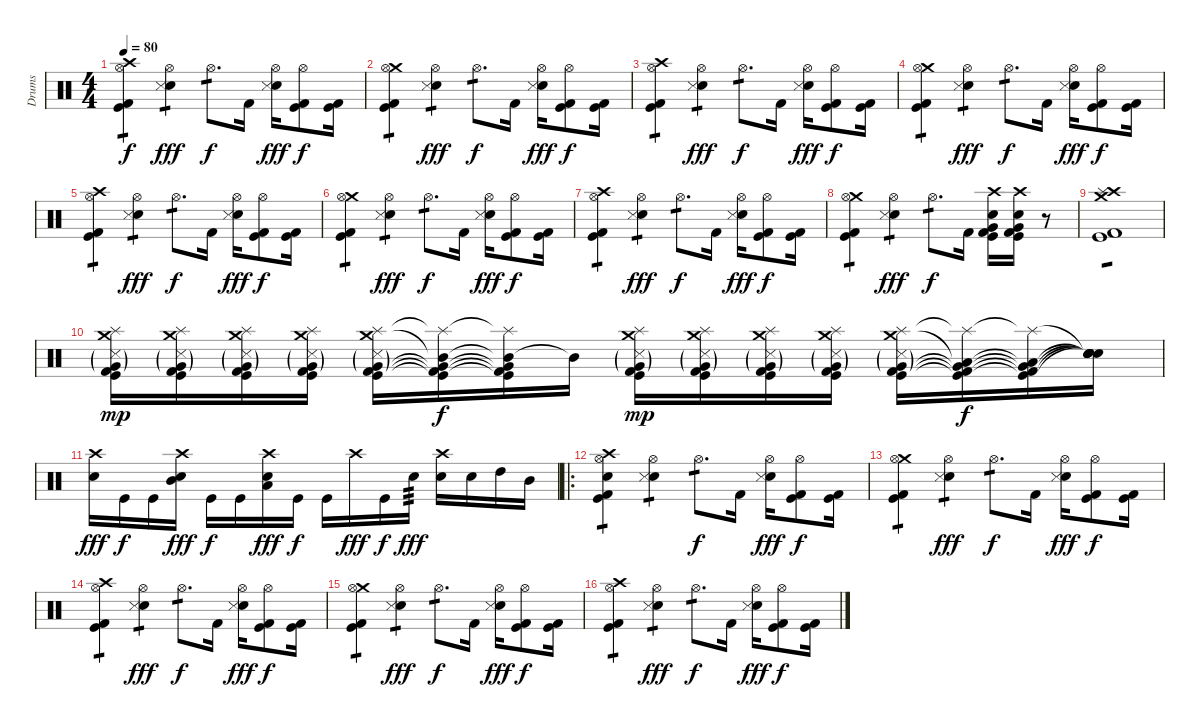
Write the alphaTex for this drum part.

\track ("Drums" "Drums") {instrument percussion}
\staff {score}
\articulation defaults
\ts (4 4)
\tempo 80
\clef neutral
\ks c
("Crash high (hit)" "Hi-Hat (open)" "Kick (hit)" "Kick (hit) 2").4{tp 1 dy f} ("Hi-Hat (open)" "Snare (hit) 2" "Snare (side stick) 3").4{tp 1 dy fff} "Hi-Hat (open)".8{d tp 1 dy f} "Kick (hit) 2".16 ("Hi-Hat (open)" "Snare (hit) 2" "Snare (side stick) 3").16{dy fff} ("Hi-Hat (open)" "Kick (hit)" "Kick (hit) 2").8{dy f} ("Kick (hit)" "Kick (hit) 2").16 |
("Crash medium (hit)" "Hi-Hat (open)" "Kick (hit)" "Kick (hit) 2").4{tp 1} ("Hi-Hat (open)" "Snare (hit) 2" "Snare (side stick) 3").4{tp 1 dy fff} "Hi-Hat (open)".8{d tp 1 dy f} "Kick (hit) 2".16 ("Hi-Hat (open)" "Snare (hit) 2" "Snare (side stick) 3").16{dy fff} ("Hi-Hat (open)" "Kick (hit)" "Kick (hit) 2").8{dy f} ("Kick (hit)" "Kick (hit) 2").16 |
("Crash high (hit)" "Hi-Hat (open)" "Kick (hit)" "Kick (hit) 2").4{tp 1} ("Hi-Hat (open)" "Snare (hit) 2" "Snare (side stick) 3").4{tp 1 dy fff} "Hi-Hat (open)".8{d tp 1 dy f} "Kick (hit) 2".16 ("Hi-Hat (open)" "Snare (hit) 2" "Snare (side stick) 3").16{dy fff} ("Hi-Hat (open)" "Kick (hit)" "Kick (hit) 2").8{dy f} ("Kick (hit)" "Kick (hit) 2").16 |
("Crash medium (hit)" "Hi-Hat (open)" "Kick (hit)" "Kick (hit) 2").4{tp 1} ("Hi-Hat (open)" "Snare (hit) 2" "Snare (side stick) 3").4{tp 1 dy fff} "Hi-Hat (open)".8{d tp 1 dy f} "Kick (hit) 2".16 ("Hi-Hat (open)" "Snare (hit) 2" "Snare (side stick) 3").16{dy fff} ("Hi-Hat (open)" "Kick (hit)" "Kick (hit) 2").8{dy f} ("Kick (hit)" "Kick (hit) 2").16 |
("Crash high (hit)" "Hi-Hat (open)" "Kick (hit)" "Kick (hit) 2").4{tp 1} ("Hi-Hat (open)" "Snare (hit) 2" "Snare (side stick) 3").4{tp 1 dy fff} "Hi-Hat (open)".8{d tp 1 dy f} "Kick (hit) 2".16 ("Hi-Hat (open)" "Snare (hit) 2" "Snare (side stick) 3").16{dy fff} ("Hi-Hat (open)" "Kick (hit)" "Kick (hit) 2").8{dy f} ("Kick (hit)" "Kick (hit) 2").16 |
("Crash medium (hit)" "Hi-Hat (open)" "Kick (hit)" "Kick (hit) 2").4{tp 1} ("Hi-Hat (open)" "Snare (hit) 2" "Snare (side stick) 3").4{tp 1 dy fff} "Hi-Hat (open)".8{d tp 1 dy f} "Kick (hit) 2".16 ("Hi-Hat (open)" "Snare (hit) 2" "Snare (side stick) 3").16{dy fff} ("Hi-Hat (open)" "Kick (hit)" "Kick (hit) 2").8{dy f} ("Kick (hit)" "Kick (hit) 2").16 |
("Crash high (hit)" "Hi-Hat (open)" "Kick (hit)" "Kick (hit) 2").4{tp 1} ("Hi-Hat (open)" "Snare (hit) 2" "Snare (side stick) 3").4{tp 1 dy fff} "Hi-Hat (open)".8{d tp 1 dy f} "Kick (hit) 2".16 ("Hi-Hat (open)" "Snare (hit) 2" "Snare (side stick) 3").16{dy fff} ("Hi-Hat (open)" "Kick (hit)" "Kick (hit) 2").8{dy f} ("Kick (hit)" "Kick (hit) 2").16 |
("Crash medium (hit)" "Hi-Hat (open)" "Kick (hit)" "Kick (hit) 2").4{tp 1} ("Hi-Hat (open)" "Snare (hit) 2" "Snare (side stick) 3").4{tp 1 dy fff} "Hi-Hat (open)".8{d tp 1 dy f} "Kick (hit) 2".16 ("Crash high (hit)" "Very Low Tom (hit)" "Snare (hit) 2" "Kick (hit)" "Kick (hit) 2").16 ("Crash high (hit)" "Very Low Tom (hit)" "Snare (hit) 2" "Kick (hit)" "Kick (hit) 2").16 r.8 |
("Crash medium (hit)" "Crash high (hit)" "Splash (hit)" "Kick (hit)" "Kick (hit) 2").1{tp 1} |
("Crash medium (hit)" "Splash (hit)" "Very Low Tom (hit)"{g} "Kick (hit)" "Kick (hit) 2" "Snare (side stick) 3"{g}).16{dy mp} ("Crash medium (hit)" "Splash (hit)" "Very Low Tom (hit)"{g} "Kick (hit)" "Kick (hit) 2" "Snare (side stick) 3"{g}).16 ("Crash medium (hit)" "Splash (hit)" "Very Low Tom (hit)"{g} "Kick (hit)" "Kick (hit) 2" "Snare (side stick) 3"{g}).16 ("Crash medium (hit)" "Splash (hit)" "Very Low Tom (hit)"{g} "Kick (hit)" "Kick (hit) 2" "Snare (side stick) 3"{g}).16 ("Crash medium (hit)" "Splash (hit)" "Very Low Tom (hit)"{g} "Kick (hit)" "Kick (hit) 2" "Snare (side stick) 3"{g}).16 ("Mid Tom (hit)"{t} "Splash (hit)"{t} "Very Low Tom (hit)"{t} "Kick (hit)"{t} "Kick (hit) 2"{t}).16{dy f} ("Mid Tom (hit)"{t} "Splash (hit)"{t} "Very Low Tom (hit)"{t} "Kick (hit)"{t} "Kick (hit) 2"{t}).16 "Mid Tom (hit)"{t}.16 ("Crash medium (hit)" "Splash (hit)" "Very Low Tom (hit)"{g} "Kick (hit)" "Kick (hit) 2" "Snare (side stick) 3"{g}).16{dy mp} ("Crash medium (hit)" "Splash (hit)" "Very Low Tom (hit)"{g} "Kick (hit)" "Kick (hit) 2" "Snare (side stick) 3"{g}).16 ("Crash medium (hit)" "Splash (hit)" "Very Low Tom (hit)"{g} "Kick (hit)" "Kick (hit) 2" "Snare (side stick) 3"{g}).16 ("Crash medium (hit)" "Splash (hit)" "Very Low Tom (hit)"{g} "Kick (hit)" "Kick (hit) 2" "Snare (side stick) 3"{g}).16 ("Crash medium (hit)" "Splash (hit)" "Very Low Tom (hit)"{g} "Kick (hit)" "Kick (hit) 2" "Snare (side stick) 3"{g}).16 ("Low Tom (hit)"{t} "Splash (hit)"{t} "Very Low Tom (hit)"{t} "Kick (hit)"{t} "Kick (hit) 2"{t}).16{dy f} ("Low Tom (hit)"{t} "Splash (hit)"{t} "Very Low Tom (hit)"{t} "Kick (hit)"{t} "Kick (hit) 2"{t}).16 ("Snare (hit)"{t} "Snare (hit)"{t} "Snare (hit)"{t} "Snare (hit)"{t} "Snare (hit)"{t}).16 |
("Crash high (hit)" "Snare (hit) 2").16{dy fff} "Kick (hit)".16{dy f} "Kick (hit)".16 ("Crash high (hit)" "Mid Tom (hit)" "Snare (hit) 2").16{dy fff} "Kick (hit)".16{dy f} "Kick (hit)".16 ("Crash high (hit)" "Low Tom (hit)" "Snare (hit) 2").16{dy fff} "Kick (hit)".16{dy f} "Kick (hit)".16 "Crash high (hit)".16{dy fff} "Kick (hit)".16{dy f} "Snare (hit) 2".16{tp 3 dy fff} ("Crash high (hit)" "Snare (hit) 2").16 "Snare (hit) 2".16 "High Tom (hit)".16 "Mid Tom (hit)".16 |
\ro
("Crash high (hit)" "Hi-Hat (open)" "Snare (hit)" "Kick (hit)" "Kick (hit) 2").4{tp 1} ("Hi-Hat (open)" "Snare (hit) 2" "Snare (side stick) 3").4{tp 1} "Hi-Hat (open)".8{d tp 1 dy f} "Kick (hit) 2".16 ("Hi-Hat (open)" "Snare (hit) 2" "Snare (side stick) 3").16{dy fff} ("Hi-Hat (open)" "Kick (hit)" "Kick (hit) 2").8{dy f} ("Kick (hit)" "Kick (hit) 2").16 |
("Crash medium (hit)" "Hi-Hat (open)" "Kick (hit)" "Kick (hit) 2").4{tp 1} ("Hi-Hat (open)" "Snare (hit) 2" "Snare (side stick) 3").4{tp 1 dy fff} "Hi-Hat (open)".8{d tp 1 dy f} "Kick (hit) 2".16 ("Hi-Hat (open)" "Snare (hit) 2" "Snare (side stick) 3").16{dy fff} ("Hi-Hat (open)" "Kick (hit)" "Kick (hit) 2").8{dy f} ("Kick (hit)" "Kick (hit) 2").16 |
("Crash high (hit)" "Hi-Hat (open)" "Kick (hit)" "Kick (hit) 2").4{tp 1} ("Hi-Hat (open)" "Snare (hit) 2" "Snare (side stick) 3").4{tp 1 dy fff} "Hi-Hat (open)".8{d tp 1 dy f} "Kick (hit) 2".16 ("Hi-Hat (open)" "Snare (hit) 2" "Snare (side stick) 3").16{dy fff} ("Hi-Hat (open)" "Kick (hit)" "Kick (hit) 2").8{dy f} ("Kick (hit)" "Kick (hit) 2").16 |
("Crash medium (hit)" "Hi-Hat (open)" "Kick (hit)" "Kick (hit) 2").4{tp 1} ("Hi-Hat (open)" "Snare (hit) 2" "Snare (side stick) 3").4{tp 1 dy fff} "Hi-Hat (open)".8{d tp 1 dy f} "Kick (hit) 2".16 ("Hi-Hat (open)" "Snare (hit) 2" "Snare (side stick) 3").16{dy fff} ("Hi-Hat (open)" "Kick (hit)" "Kick (hit) 2").8{dy f} ("Kick (hit)" "Kick (hit) 2").16 |
("Crash high (hit)" "Hi-Hat (open)" "Kick (hit)" "Kick (hit) 2").4{tp 1} ("Hi-Hat (open)" "Snare (hit) 2" "Snare (side stick) 3").4{tp 1 dy fff} "Hi-Hat (open)".8{d tp 1 dy f} "Kick (hit) 2".16 ("Hi-Hat (open)" "Snare (hit) 2" "Snare (side stick) 3").16{dy fff} ("Hi-Hat (open)" "Kick (hit)" "Kick (hit) 2").8{dy f} ("Kick (hit)" "Kick (hit) 2").16
